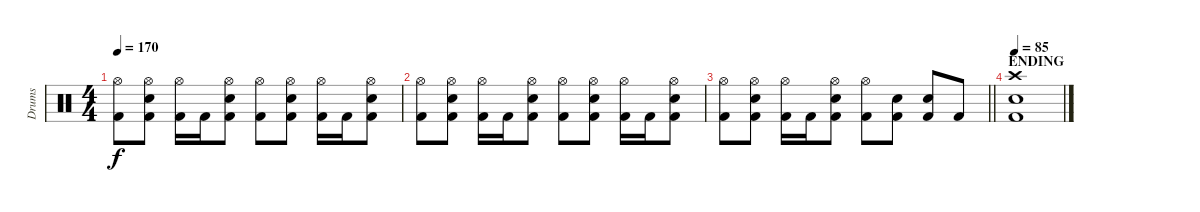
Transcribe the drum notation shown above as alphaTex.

\track ("Drums" "Drums") {instrument percussion}
\staff {score}
\articulation defaults
\ts (4 4)
\tempo 170
\clef neutral
\ks c
("Hi-Hat (open)" "Kick (hit) 2").8{dy f} ("Hi-Hat (open)" "Snare (hit) 2" "Kick (hit) 2").8 ("Hi-Hat (open)" "Kick (hit) 2").16 "Kick (hit) 2".16 ("Hi-Hat (open)" "Snare (hit) 2" "Kick (hit) 2").8 ("Hi-Hat (open)" "Kick (hit) 2").8 ("Hi-Hat (open)" "Snare (hit) 2" "Kick (hit) 2").8 ("Hi-Hat (open)" "Kick (hit) 2").16 "Kick (hit) 2".16 ("Hi-Hat (open)" "Snare (hit) 2" "Kick (hit) 2").8 |
("Hi-Hat (open)" "Kick (hit) 2").8 ("Hi-Hat (open)" "Snare (hit) 2" "Kick (hit) 2").8 ("Hi-Hat (open)" "Kick (hit) 2").16 "Kick (hit) 2".16 ("Hi-Hat (open)" "Snare (hit) 2" "Kick (hit) 2").8 ("Hi-Hat (open)" "Kick (hit) 2").8 ("Hi-Hat (open)" "Snare (hit) 2" "Kick (hit) 2").8 ("Hi-Hat (open)" "Kick (hit) 2").16 "Kick (hit) 2".16 ("Hi-Hat (open)" "Snare (hit) 2" "Kick (hit) 2").8 |
\barLineRight lightlight
("Hi-Hat (open)" "Kick (hit) 2").8 ("Hi-Hat (open)" "Snare (hit) 2" "Kick (hit) 2").8 ("Hi-Hat (open)" "Kick (hit) 2").16 "Kick (hit) 2".16 ("Hi-Hat (open)" "Snare (hit) 2" "Kick (hit) 2").8 ("Hi-Hat (open)" "Kick (hit) 2").8 ("Snare (hit) 2" "Kick (hit) 2").8 ("Snare (hit) 2" "Kick (hit) 2").8 "Kick (hit) 2".8 |
\section ("" "ENDING")
\tempo 85
("Crash high (hit)" "Snare (hit) 2" "Kick (hit) 2").1{volume 3}
